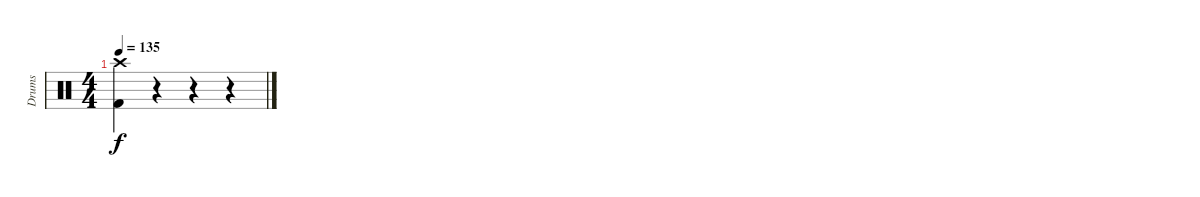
\track ("Drums" "Drums") {instrument percussion}
\staff {score}
\articulation defaults
\ts (4 4)
\tempo 135
\clef neutral
\ks c
("Crash high (hit)" "Kick (hit) 2").4{dy f} r.4 r.4 r.4
